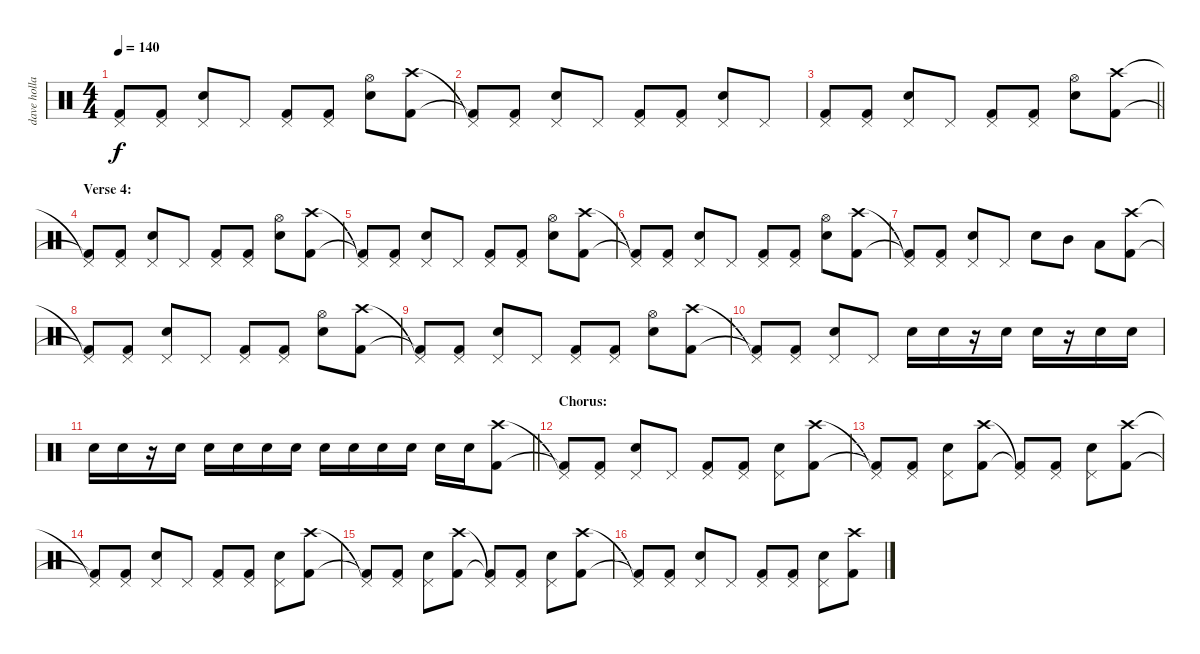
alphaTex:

\track ("dave holland" "dave holla") {instrument percussion}
\staff {score}
\articulation defaults
\ts (4 4)
\tempo 140
\clef neutral
\ks c
("Pedal Hi-Hat (hit)"{t} "Kick (hit) 2"{t}).8{dy f} ("Pedal Hi-Hat (hit)" "Kick (hit) 2").8 ("Pedal Hi-Hat (hit)" "Snare (hit) 2").8 "Pedal Hi-Hat (hit)".8 ("Pedal Hi-Hat (hit)" "Kick (hit) 2").8 ("Pedal Hi-Hat (hit)" "Kick (hit) 2").8 ("Hi-Hat (open)" "Snare (hit) 2").8 ("Crash high (hit)" "Kick (hit) 2").8 |
("Pedal Hi-Hat (hit)"{t} "Kick (hit) 2"{t}).8 ("Pedal Hi-Hat (hit)" "Kick (hit) 2").8 ("Pedal Hi-Hat (hit)" "Snare (hit) 2").8 "Pedal Hi-Hat (hit)".8 ("Pedal Hi-Hat (hit)" "Kick (hit) 2").8 ("Pedal Hi-Hat (hit)" "Kick (hit) 2").8 ("Pedal Hi-Hat (hit)" "Snare (hit) 2").8 "Pedal Hi-Hat (hit)".8 |
\barLineRight lightlight
("Pedal Hi-Hat (hit)" "Kick (hit) 2").8 ("Pedal Hi-Hat (hit)" "Kick (hit) 2").8 ("Pedal Hi-Hat (hit)" "Snare (hit) 2").8 "Pedal Hi-Hat (hit)".8 ("Pedal Hi-Hat (hit)" "Kick (hit) 2").8 ("Pedal Hi-Hat (hit)" "Kick (hit) 2").8 ("Hi-Hat (open)" "Snare (hit) 2").8 ("Crash high (hit)" "Kick (hit) 2").8 |
\section ("" "Verse 4:")
("Pedal Hi-Hat (hit)"{t} "Kick (hit) 2"{t}).8 ("Pedal Hi-Hat (hit)" "Kick (hit) 2").8 ("Pedal Hi-Hat (hit)" "Snare (hit) 2").8 "Pedal Hi-Hat (hit)".8 ("Pedal Hi-Hat (hit)" "Kick (hit) 2").8 ("Pedal Hi-Hat (hit)" "Kick (hit) 2").8 ("Hi-Hat (open)" "Snare (hit) 2").8 ("Crash high (hit)" "Kick (hit) 2").8 |
("Pedal Hi-Hat (hit)"{t} "Kick (hit) 2"{t}).8 ("Pedal Hi-Hat (hit)" "Kick (hit) 2").8 ("Pedal Hi-Hat (hit)" "Snare (hit) 2").8 "Pedal Hi-Hat (hit)".8 ("Pedal Hi-Hat (hit)" "Kick (hit) 2").8 ("Pedal Hi-Hat (hit)" "Kick (hit) 2").8 ("Hi-Hat (open)" "Snare (hit) 2").8 ("Crash high (hit)" "Kick (hit) 2").8 |
("Pedal Hi-Hat (hit)"{t} "Kick (hit) 2"{t}).8 ("Pedal Hi-Hat (hit)" "Kick (hit) 2").8 ("Pedal Hi-Hat (hit)" "Snare (hit) 2").8 "Pedal Hi-Hat (hit)".8 ("Pedal Hi-Hat (hit)" "Kick (hit) 2").8 ("Pedal Hi-Hat (hit)" "Kick (hit) 2").8 ("Hi-Hat (open)" "Snare (hit) 2").8 ("Crash high (hit)" "Kick (hit) 2").8 |
("Pedal Hi-Hat (hit)"{t} "Kick (hit) 2"{t}).8 ("Pedal Hi-Hat (hit)" "Kick (hit) 2").8 ("Pedal Hi-Hat (hit)" "Snare (hit) 2").8 "Pedal Hi-Hat (hit)".8 "Snare (hit) 2".8 "Mid Tom (hit)".8 "Low Tom (hit)".8 ("Crash high (hit)" "Kick (hit) 2").8 |
("Pedal Hi-Hat (hit)"{t} "Kick (hit) 2"{t}).8 ("Pedal Hi-Hat (hit)" "Kick (hit) 2").8 ("Pedal Hi-Hat (hit)" "Snare (hit) 2").8 "Pedal Hi-Hat (hit)".8 ("Pedal Hi-Hat (hit)" "Kick (hit) 2").8 ("Pedal Hi-Hat (hit)" "Kick (hit) 2").8 ("Hi-Hat (open)" "Snare (hit) 2").8 ("Crash high (hit)" "Kick (hit) 2").8 |
("Pedal Hi-Hat (hit)"{t} "Kick (hit) 2"{t}).8 ("Pedal Hi-Hat (hit)" "Kick (hit) 2").8 ("Pedal Hi-Hat (hit)" "Snare (hit) 2").8 "Pedal Hi-Hat (hit)".8 ("Pedal Hi-Hat (hit)" "Kick (hit) 2").8 ("Pedal Hi-Hat (hit)" "Kick (hit) 2").8 ("Hi-Hat (open)" "Snare (hit) 2").8 ("Crash high (hit)" "Kick (hit) 2").8 |
("Pedal Hi-Hat (hit)"{t} "Kick (hit) 2"{t}).8 ("Pedal Hi-Hat (hit)" "Kick (hit) 2").8 ("Pedal Hi-Hat (hit)" "Snare (hit) 2").8 "Pedal Hi-Hat (hit)".8 "Snare (hit) 2".16 "Snare (hit) 2".16 r.16 "Snare (hit) 2".16 "Snare (hit) 2".16 r.16 "Snare (hit) 2".16 "Snare (hit) 2".16 |
\barLineRight lightlight "Snare (hit) 2".16 "Snare (hit) 2".16
r.16 "Snare (hit) 2".16 "Snare (hit) 2".16 "Snare (hit) 2".16 "Snare (hit) 2".16 "Snare (hit) 2".16 "Snare (hit) 2".16 "Snare (hit) 2".16 "Snare (hit) 2".16 "Snare (hit) 2".16 "Snare (hit) 2".16 "Snare (hit) 2".16 ("Crash high (hit)" "Kick (hit) 2").8 |
\section ("" "Chorus:")
("Pedal Hi-Hat (hit)"{t} "Kick (hit) 2"{t}).8 ("Pedal Hi-Hat (hit)" "Kick (hit) 2").8 ("Pedal Hi-Hat (hit)" "Snare (hit) 2").8 "Pedal Hi-Hat (hit)".8 ("Pedal Hi-Hat (hit)" "Kick (hit) 2").8 ("Pedal Hi-Hat (hit)" "Kick (hit) 2").8 ("Pedal Hi-Hat (hit)" "Snare (hit) 2").8 ("Crash high (hit)" "Kick (hit) 2").8 |
("Pedal Hi-Hat (hit)"{t} "Kick (hit) 2"{t}).8 ("Pedal Hi-Hat (hit)" "Kick (hit) 2").8 ("Pedal Hi-Hat (hit)" "Snare (hit) 2").8 ("Crash high (hit)" "Kick (hit) 2").8 ("Pedal Hi-Hat (hit)"{t} "Kick (hit) 2"{t}).8 ("Pedal Hi-Hat (hit)" "Kick (hit) 2").8 ("Pedal Hi-Hat (hit)" "Snare (hit) 2").8 ("Crash high (hit)" "Kick (hit) 2").8 |
("Pedal Hi-Hat (hit)"{t} "Kick (hit) 2"{t}).8 ("Pedal Hi-Hat (hit)" "Kick (hit) 2").8 ("Pedal Hi-Hat (hit)" "Snare (hit) 2").8 "Pedal Hi-Hat (hit)".8 ("Pedal Hi-Hat (hit)" "Kick (hit) 2").8 ("Pedal Hi-Hat (hit)" "Kick (hit) 2").8 ("Pedal Hi-Hat (hit)" "Snare (hit) 2").8 ("Crash high (hit)" "Kick (hit) 2").8 |
("Pedal Hi-Hat (hit)"{t} "Kick (hit) 2"{t}).8 ("Pedal Hi-Hat (hit)" "Kick (hit) 2").8 ("Pedal Hi-Hat (hit)" "Snare (hit) 2").8 ("Crash high (hit)" "Kick (hit) 2").8 ("Pedal Hi-Hat (hit)"{t} "Kick (hit) 2"{t}).8 ("Pedal Hi-Hat (hit)" "Kick (hit) 2").8 ("Pedal Hi-Hat (hit)" "Snare (hit) 2").8 ("Crash high (hit)" "Kick (hit) 2").8 |
("Pedal Hi-Hat (hit)"{t} "Kick (hit) 2"{t}).8 ("Pedal Hi-Hat (hit)" "Kick (hit) 2").8 ("Pedal Hi-Hat (hit)" "Snare (hit) 2").8 "Pedal Hi-Hat (hit)".8 ("Pedal Hi-Hat (hit)" "Kick (hit) 2").8 ("Pedal Hi-Hat (hit)" "Kick (hit) 2").8 ("Pedal Hi-Hat (hit)" "Snare (hit) 2").8 ("Crash high (hit)" "Kick (hit) 2").8
